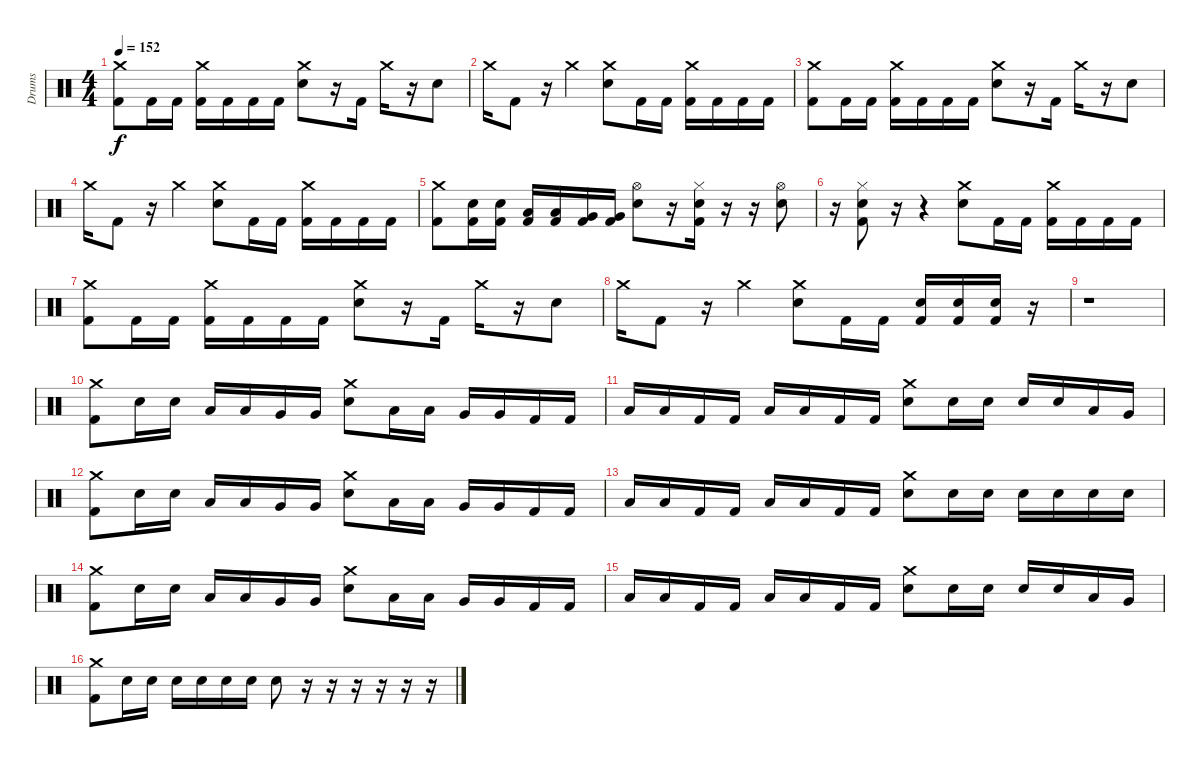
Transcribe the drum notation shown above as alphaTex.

\track ("Drums" "Drums") {instrument percussion}
\staff {score}
\articulation defaults
\ts (4 4)
\tempo 152
\clef neutral
\ks c
("Crash medium (hit)" "Kick (hit) 2").8{dy f} "Kick (hit) 2".16 "Kick (hit) 2".16 ("Crash medium (hit)" "Kick (hit) 2").16 "Kick (hit) 2".16 "Kick (hit) 2".16 "Kick (hit) 2".16 ("Crash medium (hit)" "Electric Snare (hit)").8 r.16 "Kick (hit) 2".16 "Crash medium (hit)".16 r.16 "Electric Snare (hit)".8 |
"Crash medium (hit)".16 "Kick (hit) 2".8 r.16 "Crash medium (hit)".4 ("Crash medium (hit)" "Electric Snare (hit)").8 "Kick (hit) 2".16 "Kick (hit) 2".16 ("Crash medium (hit)" "Kick (hit) 2").16 "Kick (hit) 2".16 "Kick (hit) 2".16 "Kick (hit) 2".16 |
("Crash medium (hit)" "Kick (hit) 2").8 "Kick (hit) 2".16 "Kick (hit) 2".16 ("Crash medium (hit)" "Kick (hit) 2").16 "Kick (hit) 2".16 "Kick (hit) 2".16 "Kick (hit) 2".16 ("Crash medium (hit)" "Electric Snare (hit)").8 r.16 "Kick (hit) 2".16 "Crash medium (hit)".16 r.16 "Electric Snare (hit)".8 |
"Crash medium (hit)".16 "Kick (hit) 2".8 r.16 "Crash medium (hit)".4 ("Crash medium (hit)" "Electric Snare (hit)").8 "Kick (hit) 2".16 "Kick (hit) 2".16 ("Crash medium (hit)" "Kick (hit) 2").16 "Kick (hit) 2".16 "Kick (hit) 2".16 "Kick (hit) 2".16 |
("Crash medium (hit)" "Kick (hit) 2").8 ("Electric Snare (hit)" "Kick (hit) 2").16 ("Electric Snare (hit)" "Kick (hit) 2").16 ("Low Tom (hit)" "Kick (hit) 2").16 ("Low Tom (hit)" "Kick (hit) 2").16 ("Very Low Tom (hit)" "Kick (hit) 2").16 ("Very Low Tom (hit)" "Kick (hit) 2").16 ("Hi-Hat (open)" "Electric Snare (hit)").8 r.16 ("Hi-Hat (closed)" "Electric Snare (hit)" "Kick (hit) 2").16 r.16 r.16 ("Hi-Hat (open)" "Electric Snare (hit)").8 |
r.16 ("Hi-Hat (closed)" "Electric Snare (hit)" "Kick (hit) 2").8 r.16 r.4 ("Crash medium (hit)" "Electric Snare (hit)").8 "Kick (hit) 2".16 "Kick (hit) 2".16 ("Crash medium (hit)" "Kick (hit) 2").16 "Kick (hit) 2".16 "Kick (hit) 2".16 "Kick (hit) 2".16 |
("Crash medium (hit)" "Kick (hit) 2").8 "Kick (hit) 2".16 "Kick (hit) 2".16 ("Crash medium (hit)" "Kick (hit) 2").16 "Kick (hit) 2".16 "Kick (hit) 2".16 "Kick (hit) 2".16 ("Crash medium (hit)" "Electric Snare (hit)").8 r.16 "Kick (hit) 2".16 "Crash medium (hit)".16 r.16 "Electric Snare (hit)".8 |
"Crash medium (hit)".16 "Kick (hit) 2".8 r.16 "Crash medium (hit)".4 ("Crash medium (hit)" "Electric Snare (hit)").8 "Kick (hit) 2".16 "Kick (hit) 2".16 ("Electric Snare (hit)" "Kick (hit) 2").16 ("Electric Snare (hit)" "Kick (hit) 2").16 ("Electric Snare (hit)" "Kick (hit) 2").16 r.16 |
r.1 |
("Crash medium (hit)" "Kick (hit) 2").8 "Electric Snare (hit)".16 "Electric Snare (hit)".16 "Low Tom (hit)".16 "Low Tom (hit)".16 "Very Low Tom (hit)".16 "Very Low Tom (hit)".16 ("Crash medium (hit)" "Electric Snare (hit)").8 "Low Tom (hit)".16 "Low Tom (hit)".16 "Very Low Tom (hit)".16 "Very Low Tom (hit)".16 "Kick (hit) 2".16 "Kick (hit) 2".16 |
"Low Floor Tom (hit)".16 "Low Floor Tom (hit)".16 "Kick (hit) 2".16 "Kick (hit) 2".16 "Low Floor Tom (hit)".16 "Low Floor Tom (hit)".16 "Kick (hit) 2".16 "Kick (hit) 2".16 ("Crash medium (hit)" "Electric Snare (hit)").8 "Electric Snare (hit)".16 "Electric Snare (hit)".16 "Electric Snare (hit)".16 "Electric Snare (hit)".16 "Low Tom (hit)".16 "Very Low Tom (hit)".16 |
("Crash medium (hit)" "Kick (hit) 2").8 "Electric Snare (hit)".16 "Electric Snare (hit)".16 "Low Tom (hit)".16 "Low Tom (hit)".16 "Very Low Tom (hit)".16 "Very Low Tom (hit)".16 ("Crash medium (hit)" "Electric Snare (hit)").8 "Low Tom (hit)".16 "Low Tom (hit)".16 "Very Low Tom (hit)".16 "Very Low Tom (hit)".16 "Kick (hit) 2".16 "Kick (hit) 2".16 |
"Low Floor Tom (hit)".16 "Low Floor Tom (hit)".16 "Kick (hit) 2".16 "Kick (hit) 2".16 "Low Floor Tom (hit)".16 "Low Floor Tom (hit)".16 "Kick (hit) 2".16 "Kick (hit) 2".16 ("Crash medium (hit)" "Electric Snare (hit)").8 "Electric Snare (hit)".16 "Electric Snare (hit)".16 "Electric Snare (hit)".16 "Electric Snare (hit)".16 "Electric Snare (hit)".16 "Electric Snare (hit)".16 |
("Crash medium (hit)" "Kick (hit) 2").8 "Electric Snare (hit)".16 "Electric Snare (hit)".16 "Low Tom (hit)".16 "Low Tom (hit)".16 "Very Low Tom (hit)".16 "Very Low Tom (hit)".16 ("Crash medium (hit)" "Electric Snare (hit)").8 "Low Tom (hit)".16 "Low Tom (hit)".16 "Very Low Tom (hit)".16 "Very Low Tom (hit)".16 "Kick (hit) 2".16 "Kick (hit) 2".16 |
"Low Floor Tom (hit)".16 "Low Floor Tom (hit)".16 "Kick (hit) 2".16 "Kick (hit) 2".16 "Low Floor Tom (hit)".16 "Low Floor Tom (hit)".16 "Kick (hit) 2".16 "Kick (hit) 2".16 ("Crash medium (hit)" "Electric Snare (hit)").8 "Electric Snare (hit)".16 "Electric Snare (hit)".16 "Electric Snare (hit)".16 "Electric Snare (hit)".16 "Low Tom (hit)".16 "Very Low Tom (hit)".16 |
("Crash medium (hit)" "Kick (hit) 2").8 "Electric Snare (hit)".16 "Electric Snare (hit)".16 "Electric Snare (hit)".16 "Electric Snare (hit)".16 "Electric Snare (hit)".16 "Electric Snare (hit)".16 "Electric Snare (hit)".8 r.16 r.16 r.16 r.16 r.16 r.16
